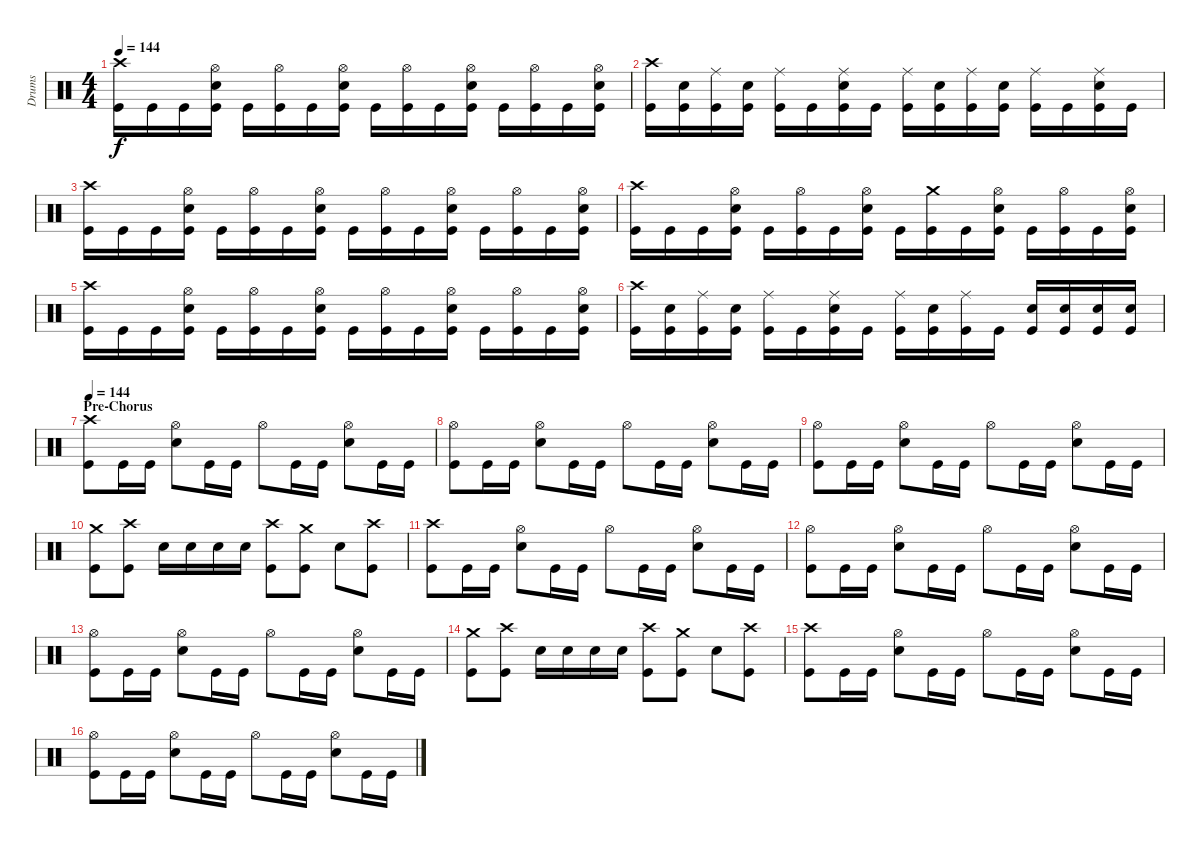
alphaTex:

\track ("Drums" "Drums") {instrument percussion}
\staff {score}
\articulation defaults
\ts (4 4)
\tempo 144
\clef neutral
\ks c
("Crash high (hit)" "Kick (hit)").16{dy f} "Kick (hit)".16 "Kick (hit)".16 ("Hi-Hat (open)" "Electric Snare (hit)" "Kick (hit)").16 "Kick (hit)".16 ("Hi-Hat (open)" "Kick (hit)").16 "Kick (hit)".16 ("Hi-Hat (open)" "Electric Snare (hit)" "Kick (hit)").16 "Kick (hit)".16 ("Hi-Hat (open)" "Kick (hit)").16 "Kick (hit)".16 ("Hi-Hat (open)" "Electric Snare (hit)" "Kick (hit)").16 "Kick (hit)".16 ("Hi-Hat (open)" "Kick (hit)").16 "Kick (hit)".16 ("Hi-Hat (open)" "Electric Snare (hit)" "Kick (hit)").16 |
("Crash high (hit)" "Kick (hit)").16 ("Electric Snare (hit)" "Kick (hit)").16 ("Ride (middle)" "Kick (hit)").16 ("Electric Snare (hit)" "Kick (hit)").16 ("Ride (middle)" "Kick (hit)").16 "Kick (hit)".16 ("Ride (middle)" "Electric Snare (hit)" "Kick (hit)").16 "Kick (hit)".16 ("Ride (middle)" "Kick (hit)").16 ("Electric Snare (hit)" "Kick (hit)").16 ("Ride (middle)" "Kick (hit)").16 ("Electric Snare (hit)" "Kick (hit)").16 ("Ride (middle)" "Kick (hit)").16 "Kick (hit)".16 ("Ride (middle)" "Electric Snare (hit)" "Kick (hit)").16 "Kick (hit)".16 |
("Crash high (hit)" "Kick (hit)").16 "Kick (hit)".16 "Kick (hit)".16 ("Hi-Hat (open)" "Electric Snare (hit)" "Kick (hit)").16 "Kick (hit)".16 ("Hi-Hat (open)" "Kick (hit)").16 "Kick (hit)".16 ("Hi-Hat (open)" "Electric Snare (hit)" "Kick (hit)").16 "Kick (hit)".16 ("Hi-Hat (open)" "Kick (hit)").16 "Kick (hit)".16 ("Hi-Hat (open)" "Electric Snare (hit)" "Kick (hit)").16 "Kick (hit)".16 ("Hi-Hat (open)" "Kick (hit)").16 "Kick (hit)".16 ("Hi-Hat (open)" "Electric Snare (hit)" "Kick (hit)").16 |
("Crash high (hit)" "Kick (hit)").16 "Kick (hit)".16 "Kick (hit)".16 ("Hi-Hat (open)" "Electric Snare (hit)" "Kick (hit)").16 "Kick (hit)".16 ("Hi-Hat (open)" "Kick (hit)").16 "Kick (hit)".16 ("Hi-Hat (open)" "Electric Snare (hit)" "Kick (hit)").16 "Kick (hit)".16 ("Crash medium (hit)" "Kick (hit)").16 "Kick (hit)".16 ("Hi-Hat (open)" "Electric Snare (hit)" "Kick (hit)").16 "Kick (hit)".16 ("Hi-Hat (open)" "Kick (hit)").16 "Kick (hit)".16 ("Hi-Hat (open)" "Electric Snare (hit)" "Kick (hit)").16 |
("Crash high (hit)" "Kick (hit)").16 "Kick (hit)".16 "Kick (hit)".16 ("Hi-Hat (open)" "Electric Snare (hit)" "Kick (hit)").16 "Kick (hit)".16 ("Hi-Hat (open)" "Kick (hit)").16 "Kick (hit)".16 ("Hi-Hat (open)" "Electric Snare (hit)" "Kick (hit)").16 "Kick (hit)".16 ("Hi-Hat (open)" "Kick (hit)").16 "Kick (hit)".16 ("Hi-Hat (open)" "Electric Snare (hit)" "Kick (hit)").16 "Kick (hit)".16 ("Hi-Hat (open)" "Kick (hit)").16 "Kick (hit)".16 ("Hi-Hat (open)" "Electric Snare (hit)" "Kick (hit)").16 |
("Crash high (hit)" "Kick (hit)").16 ("Electric Snare (hit)" "Kick (hit)").16 ("Ride (middle)" "Kick (hit)").16 ("Electric Snare (hit)" "Kick (hit)").16 ("Ride (middle)" "Kick (hit)").16 "Kick (hit)".16 ("Ride (middle)" "Electric Snare (hit)" "Kick (hit)").16 "Kick (hit)".16 ("Ride (middle)" "Kick (hit)").16 ("Electric Snare (hit)" "Kick (hit)").16 ("Ride (middle)" "Kick (hit)").16 "Kick (hit)".16 ("Electric Snare (hit)" "Kick (hit)").16 ("Electric Snare (hit)" "Kick (hit)").16 ("Electric Snare (hit)" "Kick (hit)").16 ("Electric Snare (hit)" "Kick (hit)").16 |
\section ("" "Pre-Chorus")
\tempo 144
("Crash high (hit)" "Kick (hit)").8 "Kick (hit)".16 "Kick (hit)".16 ("Hi-Hat (open)" "Electric Snare (hit)").8 "Kick (hit)".16 "Kick (hit)".16 "Hi-Hat (open)".8 "Kick (hit)".16 "Kick (hit)".16 ("Hi-Hat (open)" "Electric Snare (hit)").8 "Kick (hit)".16 "Kick (hit)".16 |
("Hi-Hat (open)" "Kick (hit)").8 "Kick (hit)".16 "Kick (hit)".16 ("Hi-Hat (open)" "Electric Snare (hit)").8 "Kick (hit)".16 "Kick (hit)".16 "Hi-Hat (open)".8 "Kick (hit)".16 "Kick (hit)".16 ("Hi-Hat (open)" "Electric Snare (hit)").8 "Kick (hit)".16 "Kick (hit)".16 |
("Hi-Hat (open)" "Kick (hit)").8 "Kick (hit)".16 "Kick (hit)".16 ("Hi-Hat (open)" "Electric Snare (hit)").8 "Kick (hit)".16 "Kick (hit)".16 "Hi-Hat (open)".8 "Kick (hit)".16 "Kick (hit)".16 ("Hi-Hat (open)" "Electric Snare (hit)").8 "Kick (hit)".16 "Kick (hit)".16 |
("Crash medium (hit)" "Kick (hit)").8 ("Crash high (hit)" "Kick (hit)").8 "Electric Snare (hit)".16 "Electric Snare (hit)".16 "Electric Snare (hit)".16 "Electric Snare (hit)".16 ("Crash high (hit)" "Kick (hit)").8 ("Crash medium (hit)" "Kick (hit)").8 "Electric Snare (hit)".8 ("Crash high (hit)" "Kick (hit)").8 |
("Crash high (hit)" "Kick (hit)").8 "Kick (hit)".16 "Kick (hit)".16 ("Hi-Hat (open)" "Electric Snare (hit)").8 "Kick (hit)".16 "Kick (hit)".16 "Hi-Hat (open)".8 "Kick (hit)".16 "Kick (hit)".16 ("Hi-Hat (open)" "Electric Snare (hit)").8 "Kick (hit)".16 "Kick (hit)".16 |
("Hi-Hat (open)" "Kick (hit)").8 "Kick (hit)".16 "Kick (hit)".16 ("Hi-Hat (open)" "Electric Snare (hit)").8 "Kick (hit)".16 "Kick (hit)".16 "Hi-Hat (open)".8 "Kick (hit)".16 "Kick (hit)".16 ("Hi-Hat (open)" "Electric Snare (hit)").8 "Kick (hit)".16 "Kick (hit)".16 |
("Hi-Hat (open)" "Kick (hit)").8 "Kick (hit)".16 "Kick (hit)".16 ("Hi-Hat (open)" "Electric Snare (hit)").8 "Kick (hit)".16 "Kick (hit)".16 "Hi-Hat (open)".8 "Kick (hit)".16 "Kick (hit)".16 ("Hi-Hat (open)" "Electric Snare (hit)").8 "Kick (hit)".16 "Kick (hit)".16 |
("Crash medium (hit)" "Kick (hit)").8 ("Crash high (hit)" "Kick (hit)").8 "Electric Snare (hit)".16 "Electric Snare (hit)".16 "Electric Snare (hit)".16 "Electric Snare (hit)".16 ("Crash high (hit)" "Kick (hit)").8 ("Crash medium (hit)" "Kick (hit)").8 "Electric Snare (hit)".8 ("Crash high (hit)" "Kick (hit)").8 |
("Crash high (hit)" "Kick (hit)").8 "Kick (hit)".16 "Kick (hit)".16 ("Hi-Hat (open)" "Electric Snare (hit)").8 "Kick (hit)".16 "Kick (hit)".16 "Hi-Hat (open)".8 "Kick (hit)".16 "Kick (hit)".16 ("Hi-Hat (open)" "Electric Snare (hit)").8 "Kick (hit)".16 "Kick (hit)".16 |
("Hi-Hat (open)" "Kick (hit)").8 "Kick (hit)".16 "Kick (hit)".16 ("Hi-Hat (open)" "Electric Snare (hit)").8 "Kick (hit)".16 "Kick (hit)".16 "Hi-Hat (open)".8 "Kick (hit)".16 "Kick (hit)".16 ("Hi-Hat (open)" "Electric Snare (hit)").8 "Kick (hit)".16 "Kick (hit)".16
